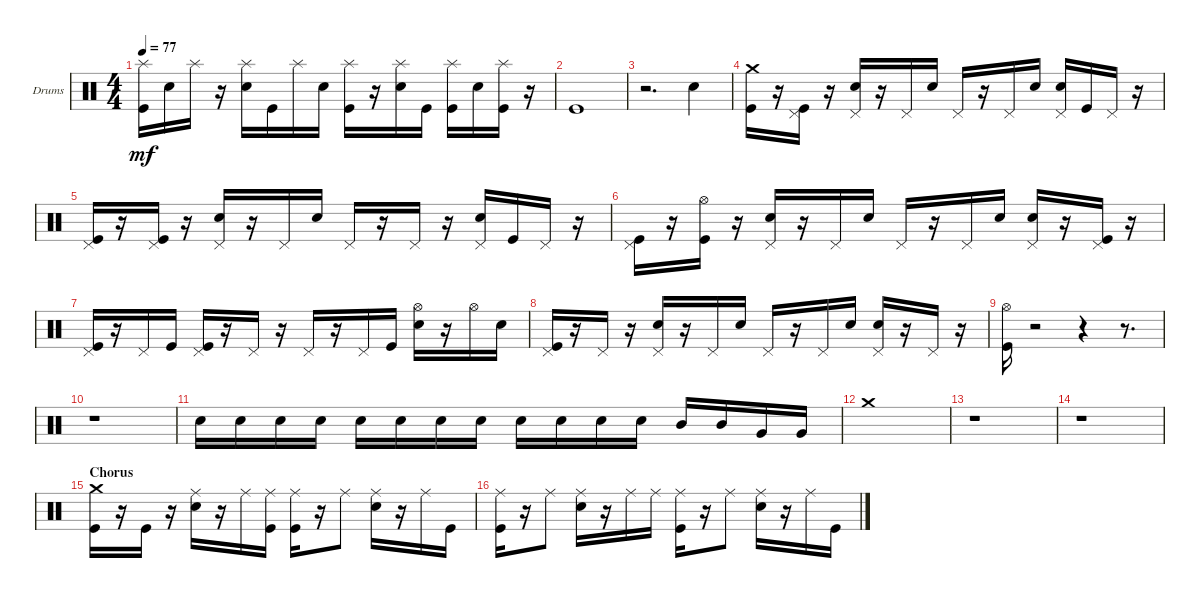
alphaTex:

\bracketExtendMode groupsimilarinstruments
\firstSystemTrackNameOrientation horizontal
\otherSystemsTrackNameOrientation horizontal
\track ("Drums" "Drums") {instrument percussion}
\staff {score}
\articulation defaults
\ts (4 4)
\tempo 77
\clef neutral
\ks c
("Kick (hit)" "Splash (hit)").16{dy mf} "Snare (hit) 2".16 "Splash (hit)".16 r.16 ("Snare (hit) 2" "Splash (hit)").16 "Kick (hit)".16 "Splash (hit)".16 "Snare (hit) 2".16 ("Kick (hit)" "Splash (hit)").16 r.16 ("Snare (hit) 2" "Splash (hit)").16 "Kick (hit)".16 ("Kick (hit)" "Splash (hit)").16 "Snare (hit) 2".16 ("Kick (hit)" "Splash (hit)").16 r.16 |
"Kick (hit)".1 |
r.2{d} "Snare (hit) 2".4 |
("Kick (hit)" "Crash medium (hit)").16 r.16 ("Kick (hit)" "Pedal Hi-Hat (hit)").16 r.16 ("Pedal Hi-Hat (hit)" "Snare (hit) 2").16 r.16 "Pedal Hi-Hat (hit)".16 "Snare (hit) 2".16 "Pedal Hi-Hat (hit)".16 r.16 "Pedal Hi-Hat (hit)".16 "Snare (hit) 2".16 ("Snare (hit) 2" "Pedal Hi-Hat (hit)").16 "Kick (hit)".16 "Pedal Hi-Hat (hit)".16 r.16 |
("Pedal Hi-Hat (hit)" "Kick (hit)").16 r.16 ("Kick (hit)" "Pedal Hi-Hat (hit)").16 r.16 ("Snare (hit) 2" "Pedal Hi-Hat (hit)").16 r.16 "Pedal Hi-Hat (hit)".16 "Snare (hit) 2".16 "Pedal Hi-Hat (hit)".16 r.16 "Pedal Hi-Hat (hit)".16 r.16 ("Pedal Hi-Hat (hit)" "Snare (hit) 2").16 "Kick (hit)".16 "Pedal Hi-Hat (hit)".16 r.16 |
("Kick (hit)" "Pedal Hi-Hat (hit)").16 r.16 ("Hi-Hat (open)" "Kick (hit)").16 r.16 ("Pedal Hi-Hat (hit)" "Snare (hit) 2").16 r.16 "Pedal Hi-Hat (hit)".16 "Snare (hit) 2".16 "Pedal Hi-Hat (hit)".16 r.16 "Pedal Hi-Hat (hit)".16 "Snare (hit) 2".16 ("Snare (hit) 2" "Pedal Hi-Hat (hit)").16 r.16 ("Pedal Hi-Hat (hit)" "Kick (hit)").16 r.16 |
("Pedal Hi-Hat (hit)" "Kick (hit)").16 r.16 "Pedal Hi-Hat (hit)".16 "Kick (hit)".16 ("Pedal Hi-Hat (hit)" "Kick (hit)").16 r.16 "Pedal Hi-Hat (hit)".16 r.16 "Pedal Hi-Hat (hit)".16 r.16 "Pedal Hi-Hat (hit)".16 "Kick (hit)".16 ("Snare (hit) 2" "Hi-Hat (open)").16 r.16 "Hi-Hat (open)".16 "Snare (hit) 2".16 |
("Kick (hit)" "Pedal Hi-Hat (hit)").16 r.16 "Pedal Hi-Hat (hit)".16 r.16 ("Snare (hit) 2" "Pedal Hi-Hat (hit)").16 r.16 "Pedal Hi-Hat (hit)".16 "Snare (hit) 2".16 "Pedal Hi-Hat (hit)".16 r.16 "Pedal Hi-Hat (hit)".16 "Snare (hit) 2".16 ("Snare (hit) 2" "Pedal Hi-Hat (hit)").16 r.16 "Pedal Hi-Hat (hit)".16 r.16 |
("Hi-Hat (open)" "Kick (hit)").16 r.2 r.4 r.8{d} |
r.1 |
"Snare (hit) 2".16 "Snare (hit) 2".16 "Snare (hit) 2".16 "Snare (hit) 2".16 "Snare (hit) 2".16 "Snare (hit) 2".16 "Snare (hit) 2".16 "Snare (hit) 2".16 "Snare (hit) 2".16 "Snare (hit) 2".16 "Snare (hit) 2".16 "Snare (hit) 2".16 "Mid Tom (hit)".16 "Mid Tom (hit)".16 "Very Low Tom (hit)".16 "Very Low Tom (hit)".16 |
"Crash medium (hit)".1 |
r.1 |
r.1 |
\section ("" "Chorus")
("Kick (hit)" "Crash medium (hit)").16 r.16 "Kick (hit)".16 r.16 ("Snare (hit) 2" "Ride (middle)").16 r.16 "Ride (middle)".16 ("Ride (middle)" "Kick (hit)").16 ("Kick (hit)" "Ride (middle)").16 r.16 "Ride (middle)".8 ("Snare (hit) 2" "Ride (middle)").16 r.16 "Ride (middle)".16 "Kick (hit)".16 |
("Kick (hit)" "Ride (middle)").16 r.16 "Ride (middle)".8 ("Ride (middle)" "Snare (hit) 2").16 r.16 "Ride (middle)".16 "Ride (middle)".16 ("Ride (middle)" "Kick (hit)").16 r.16 "Ride (middle)".8 ("Ride (middle)" "Snare (hit) 2").16 r.16 "Ride (middle)".16 "Kick (hit)".16
